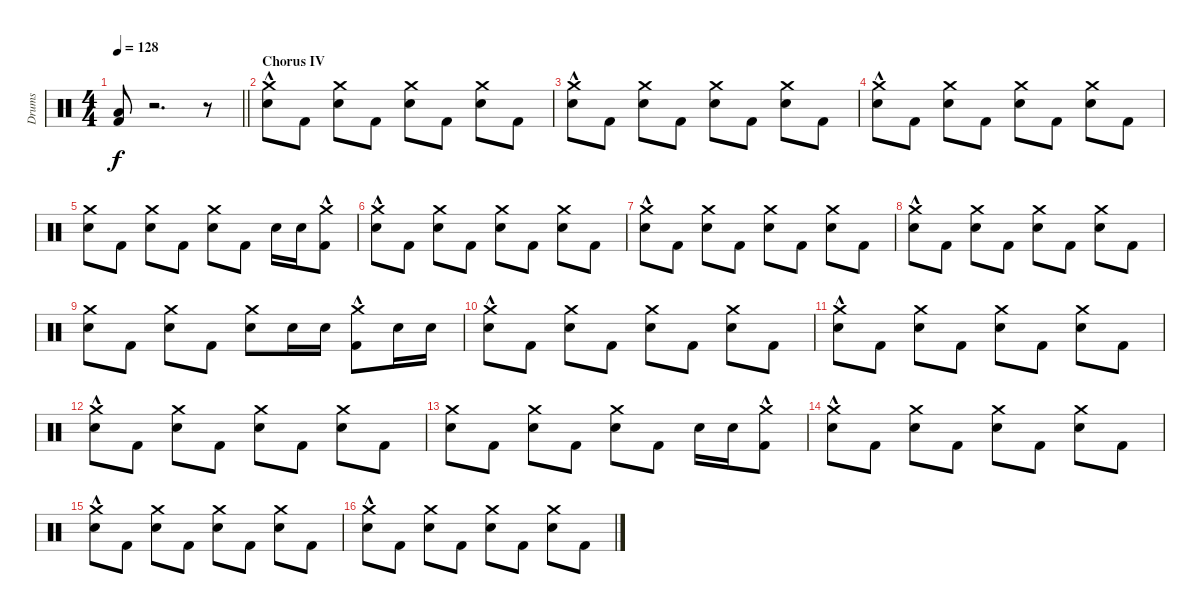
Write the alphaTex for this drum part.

\track ("Drums" "Drums") {instrument percussion}
\staff {score}
\articulation defaults
\ts (4 4)
\tempo 128
\clef neutral
\barLineRight lightlight
\ks c
("Low Floor Tom (hit)" "Kick (hit) 2").8{dy f} r.2{d} r.8 |
\section ("" "Chorus IV")
("Crash medium (hit)"{hac} "Snare (hit) 2").8 "Kick (hit) 2".8 ("Crash medium (hit)" "Snare (hit) 2").8 "Kick (hit) 2".8 ("Crash medium (hit)" "Snare (hit) 2").8 "Kick (hit) 2".8 ("Crash medium (hit)" "Snare (hit) 2").8 "Kick (hit) 2".8 |
("Crash medium (hit)"{hac} "Snare (hit) 2").8 "Kick (hit) 2".8 ("Crash medium (hit)" "Snare (hit) 2").8 "Kick (hit) 2".8 ("Crash medium (hit)" "Snare (hit) 2").8 "Kick (hit) 2".8 ("Crash medium (hit)" "Snare (hit) 2").8 "Kick (hit) 2".8 |
("Crash medium (hit)"{hac} "Snare (hit) 2").8 "Kick (hit) 2".8 ("Crash medium (hit)" "Snare (hit) 2").8 "Kick (hit) 2".8 ("Crash medium (hit)" "Snare (hit) 2").8 "Kick (hit) 2".8 ("Crash medium (hit)" "Snare (hit) 2").8 "Kick (hit) 2".8 |
("Crash medium (hit)" "Snare (hit) 2").8 "Kick (hit) 2".8 ("Crash medium (hit)" "Snare (hit) 2").8 "Kick (hit) 2".8 ("Crash medium (hit)" "Snare (hit) 2").8 "Kick (hit) 2".8 "Snare (hit) 2".16 "Snare (hit) 2".16 ("Crash medium (hit)"{hac} "Kick (hit) 2").8 |
("Crash medium (hit)"{hac} "Snare (hit) 2").8 "Kick (hit) 2".8 ("Crash medium (hit)" "Snare (hit) 2").8 "Kick (hit) 2".8 ("Crash medium (hit)" "Snare (hit) 2").8 "Kick (hit) 2".8 ("Crash medium (hit)" "Snare (hit) 2").8 "Kick (hit) 2".8 |
("Crash medium (hit)"{hac} "Snare (hit) 2").8 "Kick (hit) 2".8 ("Crash medium (hit)" "Snare (hit) 2").8 "Kick (hit) 2".8 ("Crash medium (hit)" "Snare (hit) 2").8 "Kick (hit) 2".8 ("Crash medium (hit)" "Snare (hit) 2").8 "Kick (hit) 2".8 |
("Crash medium (hit)"{hac} "Snare (hit) 2").8 "Kick (hit) 2".8 ("Crash medium (hit)" "Snare (hit) 2").8 "Kick (hit) 2".8 ("Crash medium (hit)" "Snare (hit) 2").8 "Kick (hit) 2".8 ("Crash medium (hit)" "Snare (hit) 2").8 "Kick (hit) 2".8 |
("Crash medium (hit)" "Snare (hit) 2").8 "Kick (hit) 2".8 ("Crash medium (hit)" "Snare (hit) 2").8 "Kick (hit) 2".8 ("Crash medium (hit)" "Snare (hit) 2").8 "Snare (hit) 2".16 "Snare (hit) 2".16 ("Crash medium (hit)"{hac} "Kick (hit) 2").8 "Snare (hit) 2".16 "Snare (hit) 2".16 |
("Crash medium (hit)"{hac} "Snare (hit) 2").8 "Kick (hit) 2".8 ("Crash medium (hit)" "Snare (hit) 2").8 "Kick (hit) 2".8 ("Crash medium (hit)" "Snare (hit) 2").8 "Kick (hit) 2".8 ("Crash medium (hit)" "Snare (hit) 2").8 "Kick (hit) 2".8 |
("Crash medium (hit)"{hac} "Snare (hit) 2").8 "Kick (hit) 2".8 ("Crash medium (hit)" "Snare (hit) 2").8 "Kick (hit) 2".8 ("Crash medium (hit)" "Snare (hit) 2").8 "Kick (hit) 2".8 ("Crash medium (hit)" "Snare (hit) 2").8 "Kick (hit) 2".8 |
("Crash medium (hit)"{hac} "Snare (hit) 2").8 "Kick (hit) 2".8 ("Crash medium (hit)" "Snare (hit) 2").8 "Kick (hit) 2".8 ("Crash medium (hit)" "Snare (hit) 2").8 "Kick (hit) 2".8 ("Crash medium (hit)" "Snare (hit) 2").8 "Kick (hit) 2".8 |
("Crash medium (hit)" "Snare (hit) 2").8 "Kick (hit) 2".8 ("Crash medium (hit)" "Snare (hit) 2").8 "Kick (hit) 2".8 ("Crash medium (hit)" "Snare (hit) 2").8 "Kick (hit) 2".8 "Snare (hit) 2".16 "Snare (hit) 2".16 ("Crash medium (hit)"{hac} "Kick (hit) 2").8 |
("Crash medium (hit)"{hac} "Snare (hit) 2").8 "Kick (hit) 2".8 ("Crash medium (hit)" "Snare (hit) 2").8 "Kick (hit) 2".8 ("Crash medium (hit)" "Snare (hit) 2").8 "Kick (hit) 2".8 ("Crash medium (hit)" "Snare (hit) 2").8 "Kick (hit) 2".8 |
("Crash medium (hit)"{hac} "Snare (hit) 2").8 "Kick (hit) 2".8 ("Crash medium (hit)" "Snare (hit) 2").8 "Kick (hit) 2".8 ("Crash medium (hit)" "Snare (hit) 2").8 "Kick (hit) 2".8 ("Crash medium (hit)" "Snare (hit) 2").8 "Kick (hit) 2".8 |
("Crash medium (hit)"{hac} "Snare (hit) 2").8 "Kick (hit) 2".8 ("Crash medium (hit)" "Snare (hit) 2").8 "Kick (hit) 2".8 ("Crash medium (hit)" "Snare (hit) 2").8 "Kick (hit) 2".8 ("Crash medium (hit)" "Snare (hit) 2").8 "Kick (hit) 2".8
